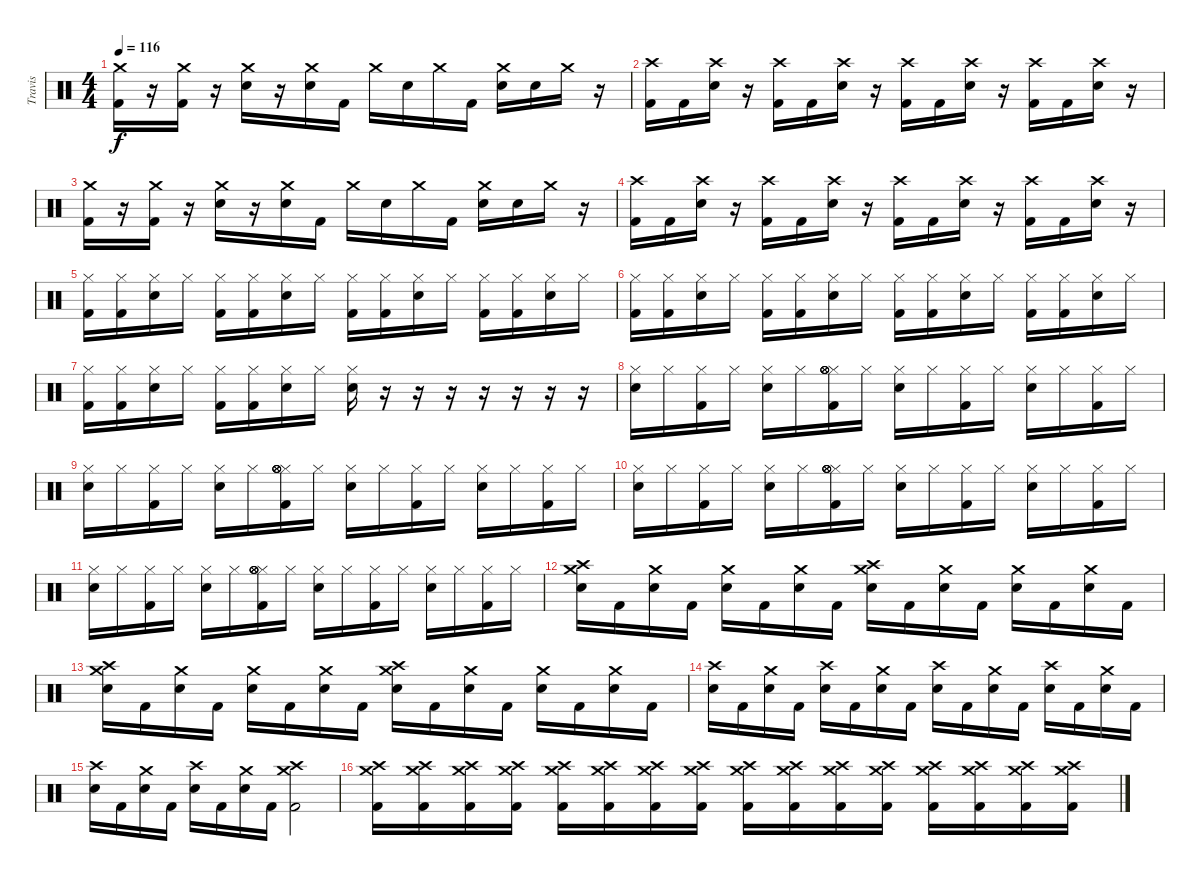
\track ("Travis" "Travis") {instrument percussion}
\staff {score}
\articulation defaults
\ts (4 4)
\tempo 116
\clef neutral
\ks c
("Crash medium (hit)" "Kick (hit) 2").16{dy f} r.16 ("Crash medium (hit)" "Kick (hit) 2").16 r.16 ("Crash medium (hit)" "Snare (hit) 2").16 r.16 ("Crash medium (hit)" "Snare (hit) 2").16 "Kick (hit) 2".16 "Crash medium (hit)".16 "Snare (hit) 2".16 "Crash medium (hit)".16 "Kick (hit) 2".16 ("Crash medium (hit)" "Snare (hit) 2").16 "Snare (hit) 2".16 "Crash medium (hit)".16 r.16 |
("Crash high (hit)" "Kick (hit) 2").16 "Kick (hit) 2".16 ("Crash high (hit)" "Snare (hit) 2").16 r.16 ("Crash high (hit)" "Kick (hit) 2").16 "Kick (hit) 2".16 ("Crash high (hit)" "Snare (hit) 2").16 r.16 ("Crash high (hit)" "Kick (hit) 2").16 "Kick (hit) 2".16 ("Crash high (hit)" "Snare (hit) 2").16 r.16 ("Crash high (hit)" "Kick (hit) 2").16 "Kick (hit) 2".16 ("Crash high (hit)" "Snare (hit) 2").16 r.16 |
("Crash medium (hit)" "Kick (hit) 2").16 r.16 ("Crash medium (hit)" "Kick (hit) 2").16 r.16 ("Crash medium (hit)" "Snare (hit) 2").16 r.16 ("Crash medium (hit)" "Snare (hit) 2").16 "Kick (hit) 2".16 "Crash medium (hit)".16 "Snare (hit) 2".16 "Crash medium (hit)".16 "Kick (hit) 2".16 ("Crash medium (hit)" "Snare (hit) 2").16 "Snare (hit) 2".16 "Crash medium (hit)".16 r.16 |
("Crash high (hit)" "Kick (hit) 2").16 "Kick (hit) 2".16 ("Crash high (hit)" "Snare (hit) 2").16 r.16 ("Crash high (hit)" "Kick (hit) 2").16 "Kick (hit) 2".16 ("Crash high (hit)" "Snare (hit) 2").16 r.16 ("Crash high (hit)" "Kick (hit) 2").16 "Kick (hit) 2".16 ("Crash high (hit)" "Snare (hit) 2").16 r.16 ("Crash high (hit)" "Kick (hit) 2").16 "Kick (hit) 2".16 ("Crash high (hit)" "Snare (hit) 2").16 r.16 |
("Hi-Hat (closed)" "Kick (hit) 2").16 ("Hi-Hat (closed)" "Kick (hit) 2").16 ("Hi-Hat (closed)" "Snare (hit) 2").16 "Hi-Hat (closed)".16 ("Hi-Hat (closed)" "Kick (hit) 2").16 ("Hi-Hat (closed)" "Kick (hit) 2").16 ("Hi-Hat (closed)" "Snare (hit) 2").16 "Hi-Hat (closed)".16 ("Hi-Hat (closed)" "Kick (hit) 2").16 ("Hi-Hat (closed)" "Kick (hit) 2").16 ("Hi-Hat (closed)" "Snare (hit) 2").16 "Hi-Hat (closed)".16 ("Hi-Hat (closed)" "Kick (hit) 2").16 ("Hi-Hat (closed)" "Kick (hit) 2").16 ("Hi-Hat (closed)" "Snare (hit) 2").16 "Hi-Hat (closed)".16 |
("Hi-Hat (closed)" "Kick (hit) 2").16 ("Hi-Hat (closed)" "Kick (hit) 2").16 ("Hi-Hat (closed)" "Snare (hit) 2").16 "Hi-Hat (closed)".16 ("Hi-Hat (closed)" "Kick (hit) 2").16 ("Hi-Hat (closed)" "Kick (hit) 2").16 ("Hi-Hat (closed)" "Snare (hit) 2").16 "Hi-Hat (closed)".16 ("Hi-Hat (closed)" "Kick (hit) 2").16 ("Hi-Hat (closed)" "Kick (hit) 2").16 ("Hi-Hat (closed)" "Snare (hit) 2").16 "Hi-Hat (closed)".16 ("Hi-Hat (closed)" "Kick (hit) 2").16 ("Hi-Hat (closed)" "Kick (hit) 2").16 ("Hi-Hat (closed)" "Snare (hit) 2").16 "Hi-Hat (closed)".16 |
("Hi-Hat (closed)" "Kick (hit) 2").16 ("Hi-Hat (closed)" "Kick (hit) 2").16 ("Hi-Hat (closed)" "Snare (hit) 2").16 "Hi-Hat (closed)".16 ("Hi-Hat (closed)" "Kick (hit) 2").16 ("Hi-Hat (closed)" "Kick (hit) 2").16 ("Hi-Hat (closed)" "Snare (hit) 2").16 "Hi-Hat (closed)".16 ("Hi-Hat (closed)" "Snare (hit) 2").16 r.16 r.16 r.16 r.16 r.16 r.16 r.16 |
("Hi-Hat (closed)" "Snare (hit) 2").16 "Hi-Hat (closed)".16 ("Hi-Hat (closed)" "Kick (hit) 2").16 "Hi-Hat (closed)".16 ("Hi-Hat (closed)" "Snare (hit) 2").16 "Hi-Hat (closed)".16 ("Hi-Hat (closed)" "Kick (hit) 2" "Hi-Hat (open)" "Hi-Hat (open)" "Hi-Hat (open)" "Hi-Hat (open)").16 "Hi-Hat (closed)".16 ("Hi-Hat (closed)" "Snare (hit) 2").16 "Hi-Hat (closed)".16 ("Hi-Hat (closed)" "Kick (hit) 2").16 "Hi-Hat (closed)".16 ("Hi-Hat (closed)" "Snare (hit) 2").16 "Hi-Hat (closed)".16 ("Hi-Hat (closed)" "Kick (hit) 2").16 "Hi-Hat (closed)".16 |
("Hi-Hat (closed)" "Snare (hit) 2").16 "Hi-Hat (closed)".16 ("Hi-Hat (closed)" "Kick (hit) 2").16 "Hi-Hat (closed)".16 ("Hi-Hat (closed)" "Snare (hit) 2").16 "Hi-Hat (closed)".16 ("Hi-Hat (closed)" "Kick (hit) 2" "Hi-Hat (open)" "Hi-Hat (open)" "Hi-Hat (open)" "Hi-Hat (open)").16 "Hi-Hat (closed)".16 ("Hi-Hat (closed)" "Snare (hit) 2").16 "Hi-Hat (closed)".16 ("Hi-Hat (closed)" "Kick (hit) 2").16 "Hi-Hat (closed)".16 ("Hi-Hat (closed)" "Snare (hit) 2").16 "Hi-Hat (closed)".16 ("Hi-Hat (closed)" "Kick (hit) 2").16 "Hi-Hat (closed)".16 |
("Hi-Hat (closed)" "Snare (hit) 2").16 "Hi-Hat (closed)".16 ("Hi-Hat (closed)" "Kick (hit) 2").16 "Hi-Hat (closed)".16 ("Hi-Hat (closed)" "Snare (hit) 2").16 "Hi-Hat (closed)".16 ("Hi-Hat (closed)" "Kick (hit) 2" "Hi-Hat (open)" "Hi-Hat (open)" "Hi-Hat (open)" "Hi-Hat (open)").16 "Hi-Hat (closed)".16 ("Hi-Hat (closed)" "Snare (hit) 2").16 "Hi-Hat (closed)".16 ("Hi-Hat (closed)" "Kick (hit) 2").16 "Hi-Hat (closed)".16 ("Hi-Hat (closed)" "Snare (hit) 2").16 "Hi-Hat (closed)".16 ("Hi-Hat (closed)" "Kick (hit) 2").16 "Hi-Hat (closed)".16 |
("Hi-Hat (closed)" "Snare (hit) 2").16 "Hi-Hat (closed)".16 ("Hi-Hat (closed)" "Kick (hit) 2").16 "Hi-Hat (closed)".16 ("Hi-Hat (closed)" "Snare (hit) 2").16 "Hi-Hat (closed)".16 ("Hi-Hat (closed)" "Kick (hit) 2" "Hi-Hat (open)" "Hi-Hat (open)" "Hi-Hat (open)" "Hi-Hat (open)").16 "Hi-Hat (closed)".16 ("Hi-Hat (closed)" "Snare (hit) 2").16 "Hi-Hat (closed)".16 ("Hi-Hat (closed)" "Kick (hit) 2").16 "Hi-Hat (closed)".16 ("Hi-Hat (closed)" "Snare (hit) 2").16 "Hi-Hat (closed)".16 ("Hi-Hat (closed)" "Kick (hit) 2").16 "Hi-Hat (closed)".16 |
("Crash medium (hit)" "Snare (hit) 2" "Crash high (hit)").16 "Kick (hit) 2".16 ("Crash medium (hit)" "Snare (hit) 2").16 "Kick (hit) 2".16 ("Crash medium (hit)" "Snare (hit) 2").16 "Kick (hit) 2".16 ("Crash medium (hit)" "Snare (hit) 2").16 "Kick (hit) 2".16 ("Crash medium (hit)" "Snare (hit) 2" "Crash high (hit)").16 "Kick (hit) 2".16 ("Crash medium (hit)" "Snare (hit) 2").16 "Kick (hit) 2".16 ("Crash medium (hit)" "Snare (hit) 2").16 "Kick (hit) 2".16 ("Crash medium (hit)" "Snare (hit) 2").16 "Kick (hit) 2".16 |
("Crash medium (hit)" "Snare (hit) 2" "Crash high (hit)").16 "Kick (hit) 2".16 ("Crash medium (hit)" "Snare (hit) 2").16 "Kick (hit) 2".16 ("Crash medium (hit)" "Snare (hit) 2").16 "Kick (hit) 2".16 ("Crash medium (hit)" "Snare (hit) 2").16 "Kick (hit) 2".16 ("Crash medium (hit)" "Snare (hit) 2" "Crash high (hit)").16 "Kick (hit) 2".16 ("Crash medium (hit)" "Snare (hit) 2").16 "Kick (hit) 2".16 ("Crash medium (hit)" "Snare (hit) 2").16 "Kick (hit) 2".16 ("Crash medium (hit)" "Snare (hit) 2").16 "Kick (hit) 2".16 |
("Crash high (hit)" "Snare (hit) 2").16 "Kick (hit) 2".16 ("Crash medium (hit)" "Snare (hit) 2").16 "Kick (hit) 2".16 ("Crash high (hit)" "Snare (hit) 2").16 "Kick (hit) 2".16 ("Crash medium (hit)" "Snare (hit) 2").16 "Kick (hit) 2".16 ("Crash high (hit)" "Snare (hit) 2").16 "Kick (hit) 2".16 ("Crash medium (hit)" "Snare (hit) 2").16 "Kick (hit) 2".16 ("Crash high (hit)" "Snare (hit) 2").16 "Kick (hit) 2".16 ("Crash medium (hit)" "Snare (hit) 2").16 "Kick (hit) 2".16 |
("Crash high (hit)" "Snare (hit) 2").16 "Kick (hit) 2".16 ("Crash medium (hit)" "Snare (hit) 2").16 "Kick (hit) 2".16 ("Crash high (hit)" "Snare (hit) 2").16 "Kick (hit) 2".16 ("Crash medium (hit)" "Snare (hit) 2").16 "Kick (hit) 2".16 ("Crash medium (hit)" "Crash high (hit)" "Kick (hit) 2").2 |
("Crash medium (hit)" "Crash high (hit)" "Kick (hit) 2").16 ("Crash medium (hit)" "Crash high (hit)" "Kick (hit) 2").16 ("Crash medium (hit)" "Crash high (hit)" "Kick (hit) 2").16 ("Crash medium (hit)" "Crash high (hit)" "Kick (hit) 2").16 ("Crash medium (hit)" "Crash high (hit)" "Kick (hit) 2").16 ("Crash medium (hit)" "Crash high (hit)" "Kick (hit) 2").16 ("Crash medium (hit)" "Crash high (hit)" "Kick (hit) 2").16 ("Crash medium (hit)" "Crash high (hit)" "Kick (hit) 2").16 ("Crash medium (hit)" "Crash high (hit)" "Kick (hit) 2").16 ("Crash medium (hit)" "Crash high (hit)" "Kick (hit) 2").16 ("Crash medium (hit)" "Crash high (hit)" "Kick (hit) 2").16 ("Crash medium (hit)" "Crash high (hit)" "Kick (hit) 2").16 ("Crash medium (hit)" "Crash high (hit)" "Kick (hit) 2").16 ("Crash medium (hit)" "Crash high (hit)" "Kick (hit) 2").16 ("Crash medium (hit)" "Crash high (hit)" "Kick (hit) 2").16 ("Crash medium (hit)" "Crash high (hit)" "Kick (hit) 2").16
